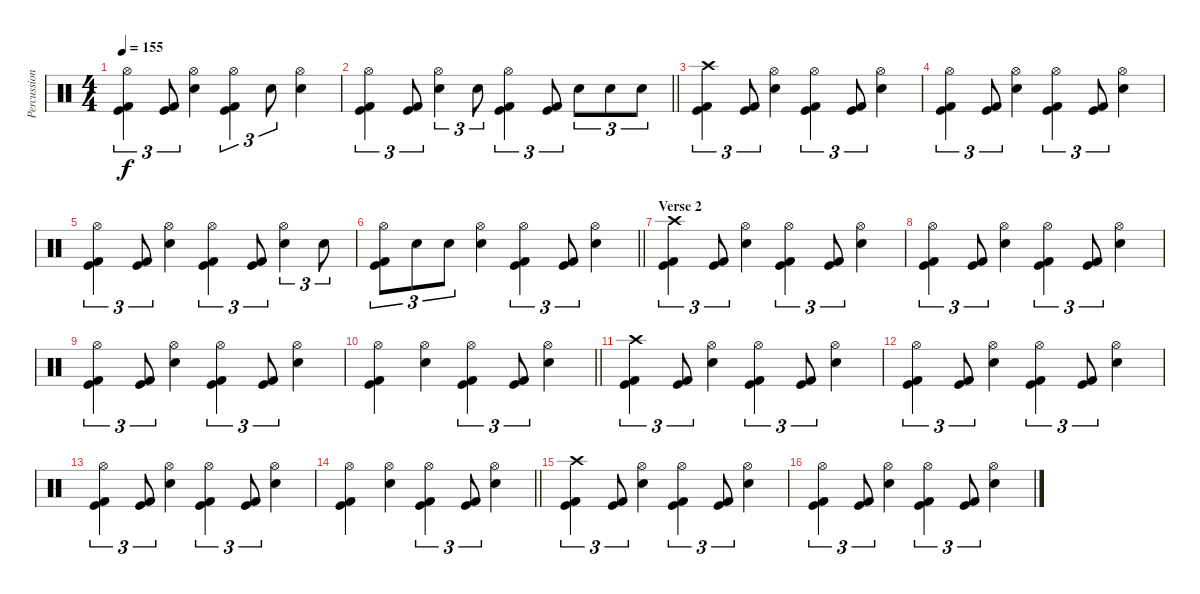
\track ("Percussion" "Percussion") {instrument percussion}
\staff {score}
\articulation defaults
\ts (4 4)
\tempo 155
\clef neutral
\ks c
("Hi-Hat (open)" "Kick (hit)" "Kick (hit) 2").4{tu (3 2) dy f} ("Kick (hit)" "Kick (hit) 2").8{tu (3 2)} ("Hi-Hat (open)" "Electric Snare (hit)").4 ("Hi-Hat (open)" "Kick (hit)" "Kick (hit) 2").4{tu (3 2)} "Electric Snare (hit)".8{tu (3 2)} ("Hi-Hat (open)" "Electric Snare (hit)").4 |
\barLineRight lightlight
("Hi-Hat (open)" "Kick (hit)" "Kick (hit) 2").4{tu (3 2)} ("Kick (hit)" "Kick (hit) 2").8{tu (3 2)} ("Hi-Hat (open)" "Electric Snare (hit)").4{tu (3 2)} "Electric Snare (hit)".8{tu (3 2)} ("Hi-Hat (open)" "Kick (hit)" "Kick (hit) 2").4{tu (3 2)} ("Kick (hit)" "Kick (hit) 2").8{tu (3 2)} "Electric Snare (hit)".8{tu (3 2)} "Electric Snare (hit)".8{tu (3 2)} "Electric Snare (hit)".8{tu (3 2)} |
\section ("" "")
("Crash high (hit)" "Kick (hit)" "Kick (hit) 2").4{tu (3 2)} ("Kick (hit)" "Kick (hit) 2").8{tu (3 2)} ("Hi-Hat (open)" "Electric Snare (hit)").4 ("Hi-Hat (open)" "Kick (hit)" "Kick (hit) 2").4{tu (3 2)} ("Kick (hit)" "Kick (hit) 2").8{tu (3 2)} ("Hi-Hat (open)" "Electric Snare (hit)").4 |
("Hi-Hat (open)" "Kick (hit)" "Kick (hit) 2").4{tu (3 2)} ("Kick (hit)" "Kick (hit) 2").8{tu (3 2)} ("Hi-Hat (open)" "Electric Snare (hit)").4 ("Hi-Hat (open)" "Kick (hit)" "Kick (hit) 2").4{tu (3 2)} ("Kick (hit)" "Kick (hit) 2").8{tu (3 2)} ("Hi-Hat (open)" "Electric Snare (hit)").4 |
("Hi-Hat (open)" "Kick (hit)" "Kick (hit) 2").4{tu (3 2)} ("Kick (hit)" "Kick (hit) 2").8{tu (3 2)} ("Hi-Hat (open)" "Electric Snare (hit)").4 ("Hi-Hat (open)" "Kick (hit)" "Kick (hit) 2").4{tu (3 2)} ("Kick (hit)" "Kick (hit) 2").8{tu (3 2)} ("Hi-Hat (open)" "Electric Snare (hit)").4{tu (3 2)} "Electric Snare (hit)".8{tu (3 2)} |
\barLineRight lightlight
("Hi-Hat (open)" "Kick (hit)" "Kick (hit) 2").8{tu (3 2)} "Electric Snare (hit)".8{tu (3 2)} "Electric Snare (hit)".8{tu (3 2)} ("Hi-Hat (open)" "Electric Snare (hit)").4 ("Hi-Hat (open)" "Kick (hit)" "Kick (hit) 2").4{tu (3 2)} ("Kick (hit)" "Kick (hit) 2").8{tu (3 2)} ("Hi-Hat (open)" "Electric Snare (hit)").4 |
\section ("" "Verse 2")
("Crash high (hit)" "Kick (hit)" "Kick (hit) 2").4{tu (3 2)} ("Kick (hit)" "Kick (hit) 2").8{tu (3 2)} ("Hi-Hat (open)" "Electric Snare (hit)").4 ("Hi-Hat (open)" "Kick (hit)" "Kick (hit) 2").4{tu (3 2)} ("Kick (hit)" "Kick (hit) 2").8{tu (3 2)} ("Hi-Hat (open)" "Electric Snare (hit)").4 |
("Hi-Hat (open)" "Kick (hit)" "Kick (hit) 2").4{tu (3 2)} ("Kick (hit)" "Kick (hit) 2").8{tu (3 2)} ("Hi-Hat (open)" "Electric Snare (hit)").4 ("Hi-Hat (open)" "Kick (hit)" "Kick (hit) 2").4{tu (3 2)} ("Kick (hit)" "Kick (hit) 2").8{tu (3 2)} ("Hi-Hat (open)" "Electric Snare (hit)").4 |
("Hi-Hat (open)" "Kick (hit)" "Kick (hit) 2").4{tu (3 2)} ("Kick (hit)" "Kick (hit) 2").8{tu (3 2)} ("Hi-Hat (open)" "Electric Snare (hit)").4 ("Hi-Hat (open)" "Kick (hit)" "Kick (hit) 2").4{tu (3 2)} ("Kick (hit)" "Kick (hit) 2").8{tu (3 2)} ("Hi-Hat (open)" "Electric Snare (hit)").4 |
\barLineRight lightlight
("Hi-Hat (open)" "Kick (hit)" "Kick (hit) 2").4 ("Hi-Hat (open)" "Electric Snare (hit)").4 ("Hi-Hat (open)" "Kick (hit)" "Kick (hit) 2").4{tu (3 2)} ("Kick (hit)" "Kick (hit) 2").8{tu (3 2)} ("Hi-Hat (open)" "Electric Snare (hit)").4 |
("Crash high (hit)" "Kick (hit)" "Kick (hit) 2").4{tu (3 2)} ("Kick (hit)" "Kick (hit) 2").8{tu (3 2)} ("Hi-Hat (open)" "Electric Snare (hit)").4 ("Hi-Hat (open)" "Kick (hit)" "Kick (hit) 2").4{tu (3 2)} ("Kick (hit)" "Kick (hit) 2").8{tu (3 2)} ("Hi-Hat (open)" "Electric Snare (hit)").4 |
("Hi-Hat (open)" "Kick (hit)" "Kick (hit) 2").4{tu (3 2)} ("Kick (hit)" "Kick (hit) 2").8{tu (3 2)} ("Hi-Hat (open)" "Electric Snare (hit)").4 ("Hi-Hat (open)" "Kick (hit)" "Kick (hit) 2").4{tu (3 2)} ("Kick (hit)" "Kick (hit) 2").8{tu (3 2)} ("Hi-Hat (open)" "Electric Snare (hit)").4 |
("Hi-Hat (open)" "Kick (hit)" "Kick (hit) 2").4{tu (3 2)} ("Kick (hit)" "Kick (hit) 2").8{tu (3 2)} ("Hi-Hat (open)" "Electric Snare (hit)").4 ("Hi-Hat (open)" "Kick (hit)" "Kick (hit) 2").4{tu (3 2)} ("Kick (hit)" "Kick (hit) 2").8{tu (3 2)} ("Hi-Hat (open)" "Electric Snare (hit)").4 |
\barLineRight lightlight
("Hi-Hat (open)" "Kick (hit)" "Kick (hit) 2").4 ("Hi-Hat (open)" "Electric Snare (hit)").4 ("Hi-Hat (open)" "Kick (hit)" "Kick (hit) 2").4{tu (3 2)} ("Kick (hit)" "Kick (hit) 2").8{tu (3 2)} ("Hi-Hat (open)" "Electric Snare (hit)").4 |
\section ("" "")
("Crash high (hit)" "Kick (hit)" "Kick (hit) 2").4{tu (3 2)} ("Kick (hit)" "Kick (hit) 2").8{tu (3 2)} ("Hi-Hat (open)" "Electric Snare (hit)").4 ("Hi-Hat (open)" "Kick (hit)" "Kick (hit) 2").4{tu (3 2)} ("Kick (hit)" "Kick (hit) 2").8{tu (3 2)} ("Hi-Hat (open)" "Electric Snare (hit)").4 |
("Hi-Hat (open)" "Kick (hit)" "Kick (hit) 2").4{tu (3 2)} ("Kick (hit)" "Kick (hit) 2").8{tu (3 2)} ("Hi-Hat (open)" "Electric Snare (hit)").4 ("Hi-Hat (open)" "Kick (hit)" "Kick (hit) 2").4{tu (3 2)} ("Kick (hit)" "Kick (hit) 2").8{tu (3 2)} ("Hi-Hat (open)" "Electric Snare (hit)").4
